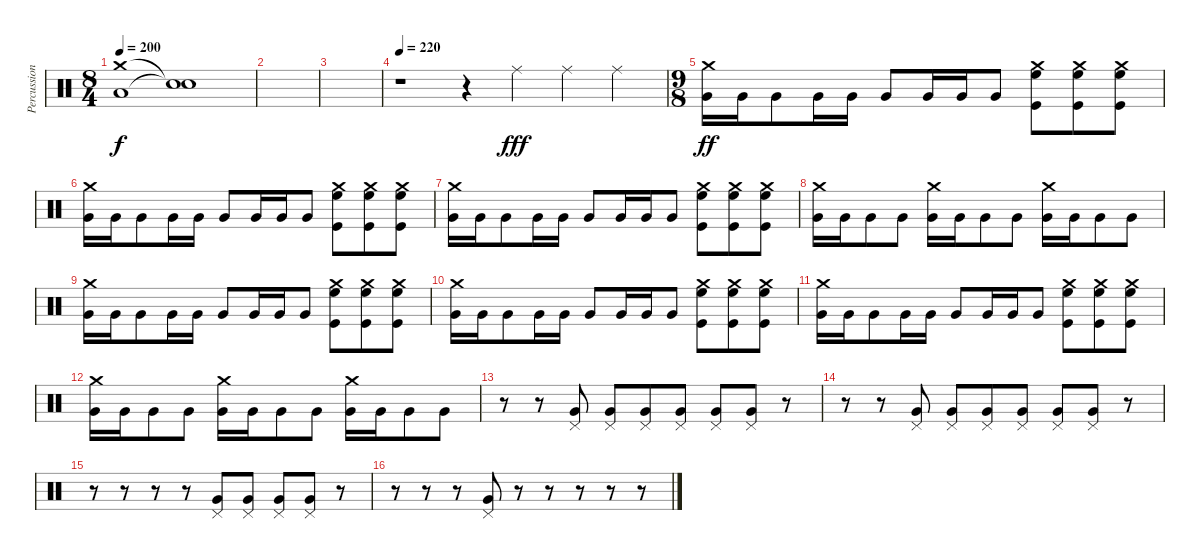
\track ("Percussion" "Percussion") {instrument percussion}
\staff {score}
\articulation defaults
\ts (8 4)
\tempo 200
\clef neutral
\ks c
("Crash medium (hit)" "Low Floor Tom (hit)").1{dy f} ("Snare (hit)"{t} "Snare (hit)"{t}).1 |
|
|
\tempo 220
r.1 r.4 "Ride (middle)".4{dy fff} "Ride (middle)".4 "Ride (middle)".4 |
\ts (9 8)
("Crash medium (hit)" "Very Low Tom (hit)").16{dy ff} "Very Low Tom (hit)".16 "Very Low Tom (hit)".8 "Very Low Tom (hit)".16 "Very Low Tom (hit)".16 "Very Low Tom (hit)".8 "Very Low Tom (hit)".16 "Very Low Tom (hit)".16 "Very Low Tom (hit)".8 ("Crash medium (hit)" "High Floor Tom (hit)" "Kick (hit)").8 ("Crash medium (hit)" "High Floor Tom (hit)" "Kick (hit)").8 ("Crash medium (hit)" "High Floor Tom (hit)" "Kick (hit)").8 |
("Crash medium (hit)" "Very Low Tom (hit)").16 "Very Low Tom (hit)".16 "Very Low Tom (hit)".8 "Very Low Tom (hit)".16 "Very Low Tom (hit)".16 "Very Low Tom (hit)".8 "Very Low Tom (hit)".16 "Very Low Tom (hit)".16 "Very Low Tom (hit)".8 ("Crash medium (hit)" "High Floor Tom (hit)" "Kick (hit)").8 ("Crash medium (hit)" "High Floor Tom (hit)" "Kick (hit)").8 ("Crash medium (hit)" "High Floor Tom (hit)" "Kick (hit)").8 |
("Crash medium (hit)" "Very Low Tom (hit)").16 "Very Low Tom (hit)".16 "Very Low Tom (hit)".8 "Very Low Tom (hit)".16 "Very Low Tom (hit)".16 "Very Low Tom (hit)".8 "Very Low Tom (hit)".16 "Very Low Tom (hit)".16 "Very Low Tom (hit)".8 ("Crash medium (hit)" "High Floor Tom (hit)" "Kick (hit)").8 ("Crash medium (hit)" "High Floor Tom (hit)" "Kick (hit)").8 ("Crash medium (hit)" "High Floor Tom (hit)" "Kick (hit)").8 |
("Crash medium (hit)" "Very Low Tom (hit)").16 "Very Low Tom (hit)".16 "Very Low Tom (hit)".8 "Very Low Tom (hit)".8 ("Crash medium (hit)" "Very Low Tom (hit)").16 "Very Low Tom (hit)".16 "Very Low Tom (hit)".8 "Very Low Tom (hit)".8 ("Crash medium (hit)" "Very Low Tom (hit)").16 "Very Low Tom (hit)".16 "Very Low Tom (hit)".8 "Very Low Tom (hit)".8 |
("Crash medium (hit)" "Very Low Tom (hit)").16 "Very Low Tom (hit)".16 "Very Low Tom (hit)".8 "Very Low Tom (hit)".16 "Very Low Tom (hit)".16 "Very Low Tom (hit)".8 "Very Low Tom (hit)".16 "Very Low Tom (hit)".16 "Very Low Tom (hit)".8 ("Crash medium (hit)" "High Floor Tom (hit)" "Kick (hit)").8 ("Crash medium (hit)" "High Floor Tom (hit)" "Kick (hit)").8 ("Crash medium (hit)" "High Floor Tom (hit)" "Kick (hit)").8 |
("Crash medium (hit)" "Very Low Tom (hit)").16 "Very Low Tom (hit)".16 "Very Low Tom (hit)".8 "Very Low Tom (hit)".16 "Very Low Tom (hit)".16 "Very Low Tom (hit)".8 "Very Low Tom (hit)".16 "Very Low Tom (hit)".16 "Very Low Tom (hit)".8 ("Crash medium (hit)" "High Floor Tom (hit)" "Kick (hit)").8 ("Crash medium (hit)" "High Floor Tom (hit)" "Kick (hit)").8 ("Crash medium (hit)" "High Floor Tom (hit)" "Kick (hit)").8 |
("Crash medium (hit)" "Very Low Tom (hit)").16 "Very Low Tom (hit)".16 "Very Low Tom (hit)".8 "Very Low Tom (hit)".16 "Very Low Tom (hit)".16 "Very Low Tom (hit)".8 "Very Low Tom (hit)".16 "Very Low Tom (hit)".16 "Very Low Tom (hit)".8 ("Crash medium (hit)" "High Floor Tom (hit)" "Kick (hit)").8 ("Crash medium (hit)" "High Floor Tom (hit)" "Kick (hit)").8 ("Crash medium (hit)" "High Floor Tom (hit)" "Kick (hit)").8 |
("Crash medium (hit)" "Very Low Tom (hit)").16 "Very Low Tom (hit)".16 "Very Low Tom (hit)".8 "Very Low Tom (hit)".8 ("Crash medium (hit)" "Very Low Tom (hit)").16 "Very Low Tom (hit)".16 "Very Low Tom (hit)".8 "Very Low Tom (hit)".8 ("Crash medium (hit)" "Very Low Tom (hit)").16 "Very Low Tom (hit)".16 "Very Low Tom (hit)".8 "Very Low Tom (hit)".8 |
r.8 r.8 ("Pedal Hi-Hat (hit)" "Very Low Tom (hit)").8 ("Pedal Hi-Hat (hit)" "Very Low Tom (hit)").8 ("Pedal Hi-Hat (hit)" "Very Low Tom (hit)").8 ("Pedal Hi-Hat (hit)" "Very Low Tom (hit)").8 ("Pedal Hi-Hat (hit)" "Very Low Tom (hit)").8 ("Pedal Hi-Hat (hit)" "Very Low Tom (hit)").8 r.8 |
r.8 r.8 ("Pedal Hi-Hat (hit)" "Very Low Tom (hit)").8 ("Pedal Hi-Hat (hit)" "Very Low Tom (hit)").8 ("Pedal Hi-Hat (hit)" "Very Low Tom (hit)").8 ("Pedal Hi-Hat (hit)" "Very Low Tom (hit)").8 ("Pedal Hi-Hat (hit)" "Very Low Tom (hit)").8 ("Pedal Hi-Hat (hit)" "Very Low Tom (hit)").8 r.8 |
r.8 r.8 r.8 r.8 ("Pedal Hi-Hat (hit)" "Very Low Tom (hit)").8 ("Pedal Hi-Hat (hit)" "Very Low Tom (hit)").8 ("Pedal Hi-Hat (hit)" "Very Low Tom (hit)").8 ("Pedal Hi-Hat (hit)" "Very Low Tom (hit)").8 r.8 |
r.8 r.8 r.8 ("Pedal Hi-Hat (hit)" "Very Low Tom (hit)").8 r.8 r.8 r.8 r.8 r.8
